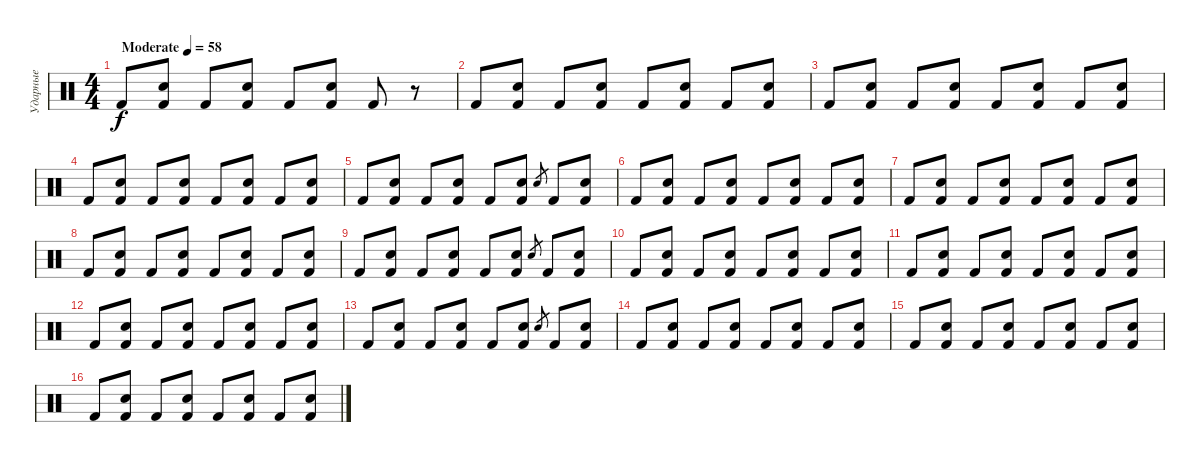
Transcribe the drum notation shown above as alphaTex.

\track ("Ударные" "Ударные") {instrument percussion}
\staff {score}
\articulation defaults
\ts (4 4)
\tempo (58 "Moderate")
\clef neutral
\ks c "Kick (hit) 2".8{dy f}
("Snare (hit) 2" "Kick (hit) 2").8 "Kick (hit) 2".8 ("Snare (hit) 2" "Kick (hit) 2").8 "Kick (hit) 2".8 ("Snare (hit) 2" "Kick (hit) 2").8 "Kick (hit) 2".8 r.8 |
"Kick (hit) 2".8 ("Snare (hit) 2" "Kick (hit) 2").8 "Kick (hit) 2".8 ("Snare (hit) 2" "Kick (hit) 2").8 "Kick (hit) 2".8 ("Snare (hit) 2" "Kick (hit) 2").8 "Kick (hit) 2".8 ("Snare (hit) 2" "Kick (hit) 2").8 |
"Kick (hit) 2".8 ("Snare (hit) 2" "Kick (hit) 2").8 "Kick (hit) 2".8 ("Snare (hit) 2" "Kick (hit) 2").8 "Kick (hit) 2".8 ("Snare (hit) 2" "Kick (hit) 2").8 "Kick (hit) 2".8 ("Snare (hit) 2" "Kick (hit) 2").8 |
"Kick (hit) 2".8 ("Snare (hit) 2" "Kick (hit) 2").8 "Kick (hit) 2".8 ("Snare (hit) 2" "Kick (hit) 2").8 "Kick (hit) 2".8 ("Snare (hit) 2" "Kick (hit) 2").8 "Kick (hit) 2".8 ("Snare (hit) 2" "Kick (hit) 2").8 |
"Kick (hit) 2".8 ("Snare (hit) 2" "Kick (hit) 2").8 "Kick (hit) 2".8 ("Snare (hit) 2" "Kick (hit) 2").8 "Kick (hit) 2".8 ("Snare (hit) 2" "Kick (hit) 2").8 "Snare (hit) 2".8{gr} "Kick (hit) 2".8 ("Snare (hit) 2" "Kick (hit) 2").8 |
"Kick (hit) 2".8 ("Snare (hit) 2" "Kick (hit) 2").8 "Kick (hit) 2".8 ("Snare (hit) 2" "Kick (hit) 2").8 "Kick (hit) 2".8 ("Snare (hit) 2" "Kick (hit) 2").8 "Kick (hit) 2".8 ("Snare (hit) 2" "Kick (hit) 2").8 |
"Kick (hit) 2".8 ("Snare (hit) 2" "Kick (hit) 2").8 "Kick (hit) 2".8 ("Snare (hit) 2" "Kick (hit) 2").8 "Kick (hit) 2".8 ("Snare (hit) 2" "Kick (hit) 2").8 "Kick (hit) 2".8 ("Snare (hit) 2" "Kick (hit) 2").8 |
"Kick (hit) 2".8 ("Snare (hit) 2" "Kick (hit) 2").8 "Kick (hit) 2".8 ("Snare (hit) 2" "Kick (hit) 2").8 "Kick (hit) 2".8 ("Snare (hit) 2" "Kick (hit) 2").8 "Kick (hit) 2".8 ("Snare (hit) 2" "Kick (hit) 2").8 |
"Kick (hit) 2".8 ("Snare (hit) 2" "Kick (hit) 2").8 "Kick (hit) 2".8 ("Snare (hit) 2" "Kick (hit) 2").8 "Kick (hit) 2".8 ("Snare (hit) 2" "Kick (hit) 2").8 "Snare (hit) 2".8{gr} "Kick (hit) 2".8 ("Snare (hit) 2" "Kick (hit) 2").8 |
"Kick (hit) 2".8 ("Snare (hit) 2" "Kick (hit) 2").8 "Kick (hit) 2".8 ("Snare (hit) 2" "Kick (hit) 2").8 "Kick (hit) 2".8 ("Snare (hit) 2" "Kick (hit) 2").8 "Kick (hit) 2".8 ("Snare (hit) 2" "Kick (hit) 2").8 |
"Kick (hit) 2".8 ("Snare (hit) 2" "Kick (hit) 2").8 "Kick (hit) 2".8 ("Snare (hit) 2" "Kick (hit) 2").8 "Kick (hit) 2".8 ("Snare (hit) 2" "Kick (hit) 2").8 "Kick (hit) 2".8 ("Snare (hit) 2" "Kick (hit) 2").8 |
"Kick (hit) 2".8 ("Snare (hit) 2" "Kick (hit) 2").8 "Kick (hit) 2".8 ("Snare (hit) 2" "Kick (hit) 2").8 "Kick (hit) 2".8 ("Snare (hit) 2" "Kick (hit) 2").8 "Kick (hit) 2".8 ("Snare (hit) 2" "Kick (hit) 2").8 |
"Kick (hit) 2".8 ("Snare (hit) 2" "Kick (hit) 2").8 "Kick (hit) 2".8 ("Snare (hit) 2" "Kick (hit) 2").8 "Kick (hit) 2".8 ("Snare (hit) 2" "Kick (hit) 2").8 "Snare (hit) 2".8{gr} "Kick (hit) 2".8 ("Snare (hit) 2" "Kick (hit) 2").8 |
"Kick (hit) 2".8 ("Snare (hit) 2" "Kick (hit) 2").8 "Kick (hit) 2".8 ("Snare (hit) 2" "Kick (hit) 2").8 "Kick (hit) 2".8 ("Snare (hit) 2" "Kick (hit) 2").8 "Kick (hit) 2".8 ("Snare (hit) 2" "Kick (hit) 2").8 |
"Kick (hit) 2".8 ("Snare (hit) 2" "Kick (hit) 2").8 "Kick (hit) 2".8 ("Snare (hit) 2" "Kick (hit) 2").8 "Kick (hit) 2".8 ("Snare (hit) 2" "Kick (hit) 2").8 "Kick (hit) 2".8 ("Snare (hit) 2" "Kick (hit) 2").8 |
"Kick (hit) 2".8 ("Snare (hit) 2" "Kick (hit) 2").8 "Kick (hit) 2".8 ("Snare (hit) 2" "Kick (hit) 2").8 "Kick (hit) 2".8 ("Snare (hit) 2" "Kick (hit) 2").8 "Kick (hit) 2".8 ("Snare (hit) 2" "Kick (hit) 2").8
